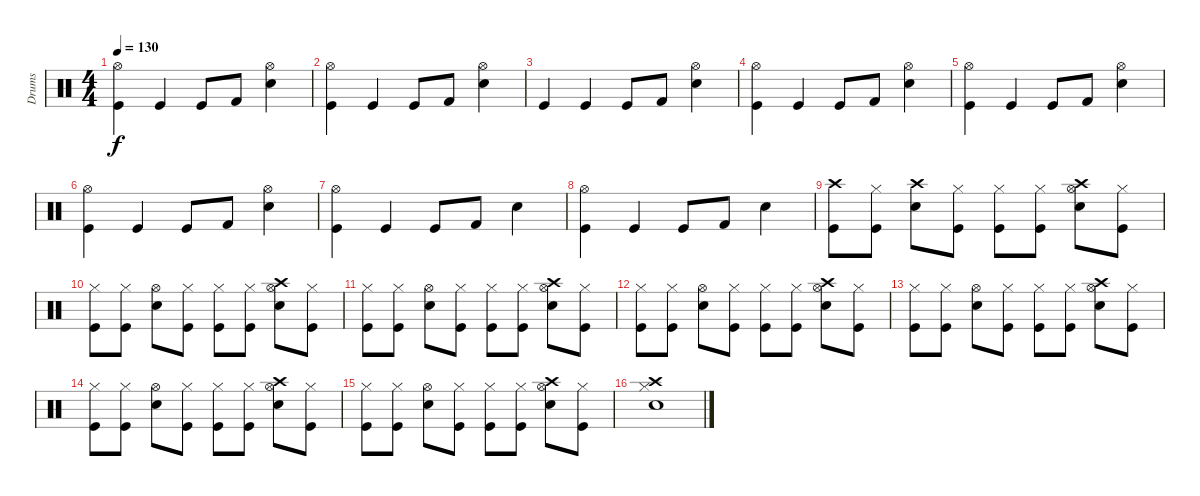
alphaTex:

\track ("Drums" "Drums") {instrument percussion}
\staff {score}
\articulation defaults
\ts (4 4)
\tempo 130
\clef neutral
\ks c
("Kick (hit)" "Hi-Hat (open)").4{dy f} "Kick (hit)".4 "Kick (hit)".8 "Kick (hit) 2".8 ("Snare (hit) 2" "Hi-Hat (open)").4 |
("Kick (hit)" "Hi-Hat (open)").4 "Kick (hit)".4 "Kick (hit)".8 "Kick (hit) 2".8 ("Snare (hit) 2" "Hi-Hat (open)").4 |
"Kick (hit)".4 "Kick (hit)".4 "Kick (hit)".8 "Kick (hit) 2".8 ("Snare (hit) 2" "Hi-Hat (open)").4 |
("Kick (hit)" "Hi-Hat (open)").4 "Kick (hit)".4 "Kick (hit)".8 "Kick (hit) 2".8 ("Snare (hit) 2" "Hi-Hat (open)").4 |
("Kick (hit)" "Hi-Hat (open)").4 "Kick (hit)".4 "Kick (hit)".8 "Kick (hit) 2".8 ("Snare (hit) 2" "Hi-Hat (open)").4 |
("Kick (hit)" "Hi-Hat (open)").4 "Kick (hit)".4 "Kick (hit)".8 "Kick (hit) 2".8 ("Snare (hit) 2" "Hi-Hat (open)").4 |
("Kick (hit)" "Hi-Hat (open)").4 "Kick (hit)".4 "Kick (hit)".8 "Kick (hit) 2".8 "Snare (hit) 2".4 |
("Kick (hit)" "Hi-Hat (open)").4 "Kick (hit)".4 "Kick (hit)".8 "Kick (hit) 2".8 "Snare (hit) 2".4 |
("Kick (hit)" "Crash high (hit)").8 ("Hi-Hat (closed)" "Kick (hit)").8 ("Snare (hit) 2" "Crash high (hit)").8 ("Hi-Hat (closed)" "Kick (hit)").8 ("Hi-Hat (closed)" "Kick (hit)").8 ("Hi-Hat (closed)" "Kick (hit)").8 ("Hi-Hat (open)" "Snare (hit) 2" "Crash high (hit)").8 ("Hi-Hat (closed)" "Kick (hit)").8 |
("Hi-Hat (closed)" "Kick (hit)").8 ("Hi-Hat (closed)" "Kick (hit)").8 ("Hi-Hat (open)" "Snare (hit) 2").8 ("Hi-Hat (closed)" "Kick (hit)").8 ("Hi-Hat (closed)" "Kick (hit)").8 ("Hi-Hat (closed)" "Kick (hit)").8 ("Hi-Hat (open)" "Snare (hit) 2" "Crash high (hit)").8 ("Hi-Hat (closed)" "Kick (hit)").8 |
("Hi-Hat (closed)" "Kick (hit)").8 ("Hi-Hat (closed)" "Kick (hit)").8 ("Hi-Hat (open)" "Snare (hit) 2").8 ("Hi-Hat (closed)" "Kick (hit)").8 ("Hi-Hat (closed)" "Kick (hit)").8 ("Hi-Hat (closed)" "Kick (hit)").8 ("Hi-Hat (open)" "Snare (hit) 2" "Crash high (hit)").8 ("Hi-Hat (closed)" "Kick (hit)").8 |
("Hi-Hat (closed)" "Kick (hit)").8 ("Hi-Hat (closed)" "Kick (hit)").8 ("Hi-Hat (open)" "Snare (hit) 2").8 ("Hi-Hat (closed)" "Kick (hit)").8 ("Hi-Hat (closed)" "Kick (hit)").8 ("Hi-Hat (closed)" "Kick (hit)").8 ("Hi-Hat (open)" "Snare (hit) 2" "Crash high (hit)").8 ("Hi-Hat (closed)" "Kick (hit)").8 |
("Hi-Hat (closed)" "Kick (hit)").8 ("Hi-Hat (closed)" "Kick (hit)").8 ("Hi-Hat (open)" "Snare (hit) 2").8 ("Hi-Hat (closed)" "Kick (hit)").8 ("Hi-Hat (closed)" "Kick (hit)").8 ("Hi-Hat (closed)" "Kick (hit)").8 ("Hi-Hat (open)" "Snare (hit) 2" "Crash high (hit)").8 ("Hi-Hat (closed)" "Kick (hit)").8 |
("Hi-Hat (closed)" "Kick (hit)").8 ("Hi-Hat (closed)" "Kick (hit)").8 ("Hi-Hat (open)" "Snare (hit) 2").8 ("Hi-Hat (closed)" "Kick (hit)").8 ("Hi-Hat (closed)" "Kick (hit)").8 ("Hi-Hat (closed)" "Kick (hit)").8 ("Hi-Hat (open)" "Snare (hit) 2" "Crash high (hit)").8 ("Hi-Hat (closed)" "Kick (hit)").8 |
("Hi-Hat (closed)" "Kick (hit)").8 ("Hi-Hat (closed)" "Kick (hit)").8 ("Hi-Hat (open)" "Snare (hit) 2").8 ("Hi-Hat (closed)" "Kick (hit)").8 ("Hi-Hat (closed)" "Kick (hit)").8 ("Hi-Hat (closed)" "Kick (hit)").8 ("Hi-Hat (open)" "Snare (hit) 2" "Crash high (hit)").8 ("Hi-Hat (closed)" "Kick (hit)").8 |
("Hi-Hat (closed)" "Snare (hit) 2" "Crash high (hit)").1
